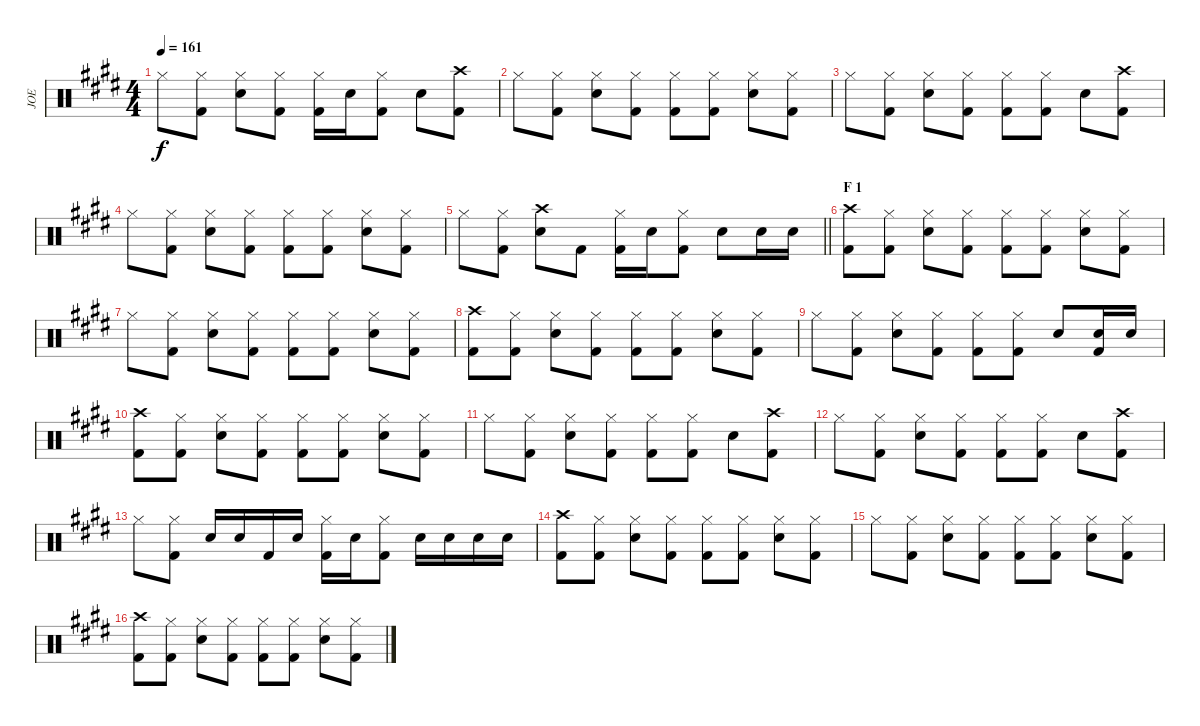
\track ("JOE" "JOE") {instrument percussion}
\staff {score}
\articulation defaults
\ts (4 4)
\tempo 161
\clef neutral
\ks e "Hi-Hat (closed)".8{dy f}
("Hi-Hat (closed)" "Kick (hit) 2").8 ("Hi-Hat (closed)" "Snare (hit) 2").8 ("Hi-Hat (closed)" "Kick (hit) 2").8 ("Hi-Hat (closed)" "Kick (hit) 2").16 "Snare (hit) 2".16 ("Hi-Hat (closed)" "Kick (hit) 2").8 "Snare (hit) 2".8 ("Crash high (hit)" "Kick (hit) 2").8 |
"Hi-Hat (closed)".8 ("Hi-Hat (closed)" "Kick (hit) 2").8 ("Hi-Hat (closed)" "Snare (hit) 2").8 ("Hi-Hat (closed)" "Kick (hit) 2").8 ("Hi-Hat (closed)" "Kick (hit) 2").8 ("Hi-Hat (closed)" "Kick (hit) 2").8 ("Hi-Hat (closed)" "Snare (hit) 2").8 ("Hi-Hat (closed)" "Kick (hit) 2").8 |
"Hi-Hat (closed)".8 ("Hi-Hat (closed)" "Kick (hit) 2").8 ("Hi-Hat (closed)" "Snare (hit) 2").8 ("Hi-Hat (closed)" "Kick (hit) 2").8 ("Hi-Hat (closed)" "Kick (hit) 2").8 ("Hi-Hat (closed)" "Kick (hit) 2").8 "Snare (hit) 2".8 ("Crash high (hit)" "Kick (hit) 2").8 |
"Hi-Hat (closed)".8 ("Hi-Hat (closed)" "Kick (hit) 2").8 ("Hi-Hat (closed)" "Snare (hit) 2").8 ("Hi-Hat (closed)" "Kick (hit) 2").8 ("Hi-Hat (closed)" "Kick (hit) 2").8 ("Hi-Hat (closed)" "Kick (hit) 2").8 ("Hi-Hat (closed)" "Snare (hit) 2").8 ("Hi-Hat (closed)" "Kick (hit) 2").8 |
\barLineRight lightlight "Hi-Hat (closed)".8
("Hi-Hat (closed)" "Kick (hit) 2").8 ("Crash high (hit)" "Snare (hit) 2").8 "Kick (hit) 2".8 ("Hi-Hat (closed)" "Kick (hit) 2").16 "Snare (hit) 2".16 ("Hi-Hat (closed)" "Kick (hit) 2").8 "Snare (hit) 2".8 "Snare (hit) 2".16 "Snare (hit) 2".16 |
\section ("" "F 1")
("Crash high (hit)" "Kick (hit) 2").8 ("Hi-Hat (closed)" "Kick (hit) 2").8 ("Hi-Hat (closed)" "Snare (hit) 2").8 ("Hi-Hat (closed)" "Kick (hit) 2").8 ("Hi-Hat (closed)" "Kick (hit) 2").8 ("Hi-Hat (closed)" "Kick (hit) 2").8 ("Hi-Hat (closed)" "Snare (hit) 2").8 ("Hi-Hat (closed)" "Kick (hit) 2").8 |
"Hi-Hat (closed)".8 ("Hi-Hat (closed)" "Kick (hit) 2").8 ("Hi-Hat (closed)" "Snare (hit) 2").8 ("Hi-Hat (closed)" "Kick (hit) 2").8 ("Hi-Hat (closed)" "Kick (hit) 2").8 ("Hi-Hat (closed)" "Kick (hit) 2").8 ("Hi-Hat (closed)" "Snare (hit) 2").8 ("Hi-Hat (closed)" "Kick (hit) 2").8 |
("Crash high (hit)" "Kick (hit) 2").8 ("Hi-Hat (closed)" "Kick (hit) 2").8 ("Hi-Hat (closed)" "Snare (hit) 2").8 ("Hi-Hat (closed)" "Kick (hit) 2").8 ("Hi-Hat (closed)" "Kick (hit) 2").8 ("Hi-Hat (closed)" "Kick (hit) 2").8 ("Hi-Hat (closed)" "Snare (hit) 2").8 ("Hi-Hat (closed)" "Kick (hit) 2").8 |
"Hi-Hat (closed)".8 ("Hi-Hat (closed)" "Kick (hit) 2").8 ("Hi-Hat (closed)" "Snare (hit) 2").8 ("Hi-Hat (closed)" "Kick (hit) 2").8 ("Hi-Hat (closed)" "Kick (hit) 2").8 ("Hi-Hat (closed)" "Kick (hit) 2").8 "Snare (hit) 2".8 ("Snare (hit) 2" "Kick (hit) 2").16 "Snare (hit) 2".16 |
("Crash high (hit)" "Kick (hit) 2").8 ("Hi-Hat (closed)" "Kick (hit) 2").8 ("Hi-Hat (closed)" "Snare (hit) 2").8 ("Hi-Hat (closed)" "Kick (hit) 2").8 ("Hi-Hat (closed)" "Kick (hit) 2").8 ("Hi-Hat (closed)" "Kick (hit) 2").8 ("Hi-Hat (closed)" "Snare (hit) 2").8 ("Hi-Hat (closed)" "Kick (hit) 2").8 |
"Hi-Hat (closed)".8 ("Hi-Hat (closed)" "Kick (hit) 2").8 ("Hi-Hat (closed)" "Snare (hit) 2").8 ("Hi-Hat (closed)" "Kick (hit) 2").8 ("Hi-Hat (closed)" "Kick (hit) 2").8 ("Hi-Hat (closed)" "Kick (hit) 2").8 "Snare (hit) 2".8 ("Crash high (hit)" "Kick (hit) 2").8 |
"Hi-Hat (closed)".8 ("Hi-Hat (closed)" "Kick (hit) 2").8 ("Hi-Hat (closed)" "Snare (hit) 2").8 ("Hi-Hat (closed)" "Kick (hit) 2").8 ("Hi-Hat (closed)" "Kick (hit) 2").8 ("Hi-Hat (closed)" "Kick (hit) 2").8 "Snare (hit) 2".8 ("Crash high (hit)" "Kick (hit) 2").8 |
"Hi-Hat (closed)".8 ("Hi-Hat (closed)" "Kick (hit) 2").8 "Snare (hit) 2".16 "Snare (hit) 2".16 "Kick (hit) 2".16 "Snare (hit) 2".16 ("Hi-Hat (closed)" "Kick (hit) 2").16 "Snare (hit) 2".16 ("Hi-Hat (closed)" "Kick (hit) 2").8 "Snare (hit) 2".16 "Snare (hit) 2".16 "Snare (hit) 2".16 "Snare (hit) 2".16 |
("Crash high (hit)" "Kick (hit) 2").8 ("Hi-Hat (closed)" "Kick (hit) 2").8 ("Hi-Hat (closed)" "Snare (hit) 2").8 ("Hi-Hat (closed)" "Kick (hit) 2").8 ("Hi-Hat (closed)" "Kick (hit) 2").8 ("Hi-Hat (closed)" "Kick (hit) 2").8 ("Hi-Hat (closed)" "Snare (hit) 2").8 ("Hi-Hat (closed)" "Kick (hit) 2").8 |
"Hi-Hat (closed)".8 ("Hi-Hat (closed)" "Kick (hit) 2").8 ("Hi-Hat (closed)" "Snare (hit) 2").8 ("Hi-Hat (closed)" "Kick (hit) 2").8 ("Hi-Hat (closed)" "Kick (hit) 2").8 ("Hi-Hat (closed)" "Kick (hit) 2").8 ("Hi-Hat (closed)" "Snare (hit) 2").8 ("Hi-Hat (closed)" "Kick (hit) 2").8 |
("Crash high (hit)" "Kick (hit) 2").8 ("Hi-Hat (closed)" "Kick (hit) 2").8 ("Hi-Hat (closed)" "Snare (hit) 2").8 ("Hi-Hat (closed)" "Kick (hit) 2").8 ("Hi-Hat (closed)" "Kick (hit) 2").8 ("Hi-Hat (closed)" "Kick (hit) 2").8 ("Hi-Hat (closed)" "Snare (hit) 2").8 ("Hi-Hat (closed)" "Kick (hit) 2").8
